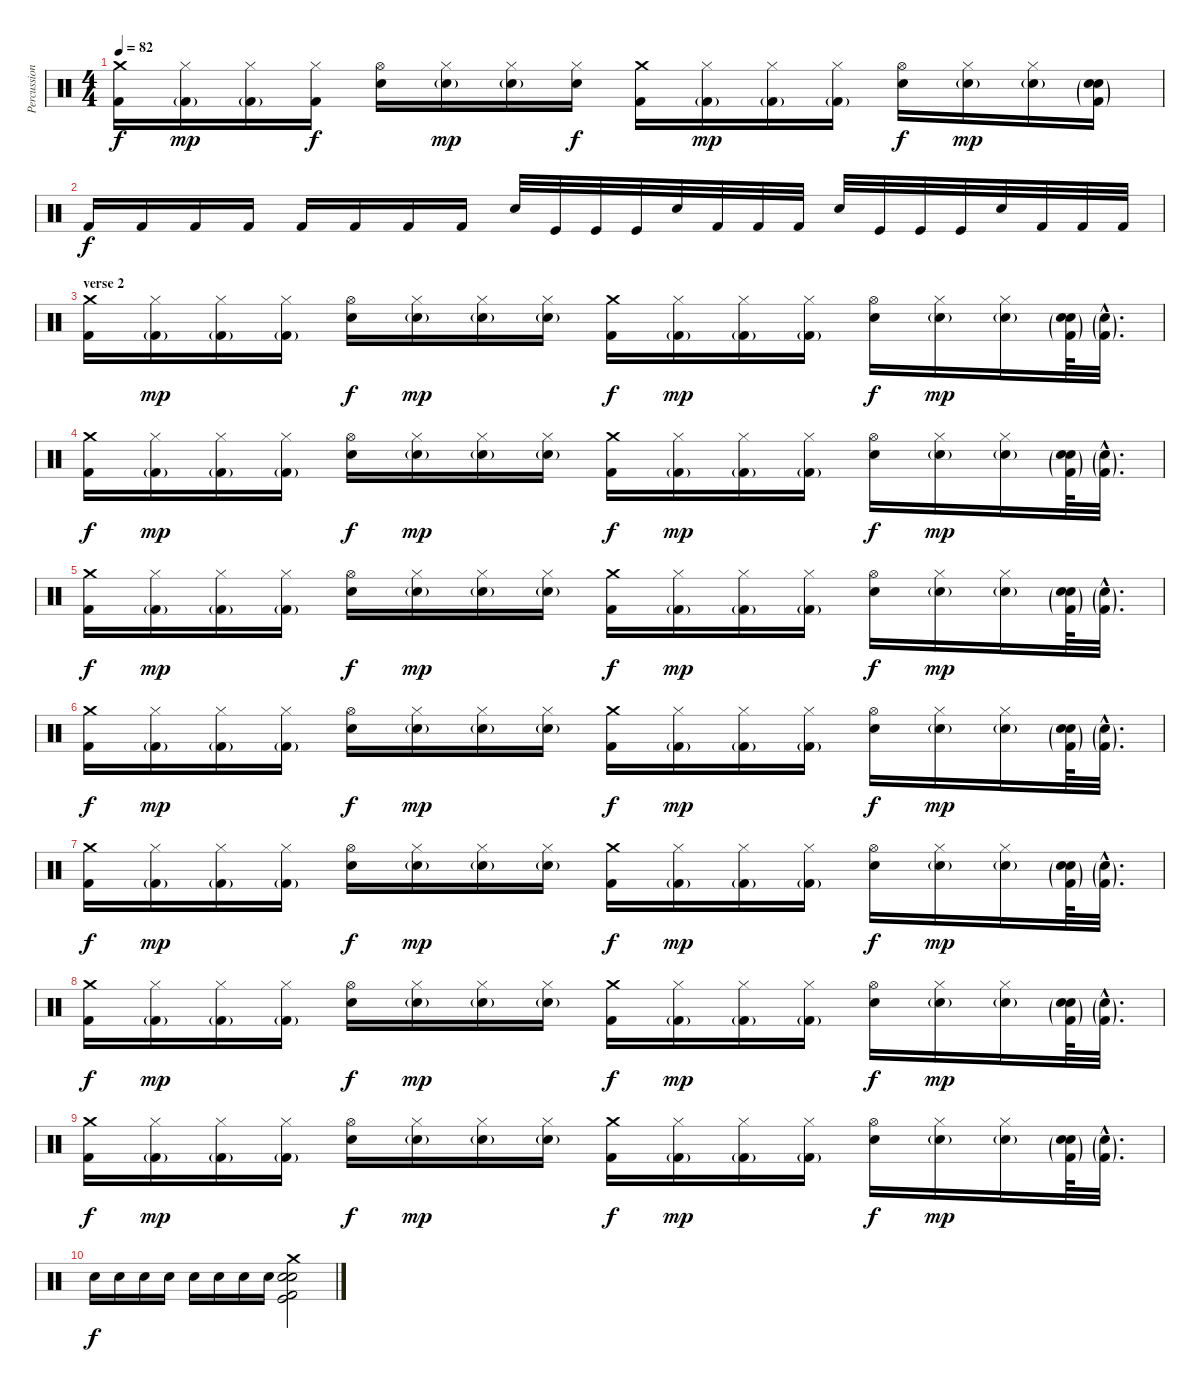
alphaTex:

\track ("Percussion" "Percussion") {instrument percussion}
\staff {score}
\articulation defaults
\ts (4 4)
\tempo 82
\clef neutral
\ks c
("Crash medium (hit)" "Kick (hit) 2").16{dy f} ("Kick (hit) 2"{g} "Hi-Hat (closed)").16{dy mp} ("Kick (hit) 2"{g} "Hi-Hat (closed)").16 ("Kick (hit) 2" "Hi-Hat (closed)").16{dy f} ("Hi-Hat (open)" "Snare (hit) 2").16 ("Snare (hit) 2"{g} "Hi-Hat (closed)").16{dy mp} ("Snare (hit) 2"{g} "Hi-Hat (closed)").16 ("Snare (hit) 2" "Hi-Hat (closed)").16{dy f} ("Crash medium (hit)" "Kick (hit) 2").16 ("Kick (hit) 2"{g} "Hi-Hat (closed)").16{dy mp} ("Kick (hit) 2"{g} "Hi-Hat (closed)").16 ("Kick (hit) 2"{g} "Hi-Hat (closed)").16 ("Hi-Hat (open)" "Snare (hit) 2").16{dy f} ("Snare (hit) 2"{g} "Hi-Hat (closed)").16{dy mp} ("Snare (hit) 2"{g} "Hi-Hat (closed)").16 ("Snare (hit) 2" "Kick (hit) 2"{g} "Electric Snare (hit)"{g}).16 |
"Kick (hit) 2".16{dy f} "Kick (hit) 2".16 "Kick (hit) 2".16 "Kick (hit) 2".16 "Kick (hit) 2".16 "Kick (hit) 2".16 "Kick (hit) 2".16 "Kick (hit) 2".16 "Snare (hit) 2".32 "Kick (hit)".32 "Kick (hit)".32 "Kick (hit)".32 "Snare (hit) 2".32 "Kick (hit) 2".32 "Kick (hit) 2".32 "Kick (hit) 2".32 "Snare (hit) 2".32 "Kick (hit)".32 "Kick (hit)".32 "Kick (hit)".32 "Electric Snare (hit)".32 "Kick (hit) 2".32 "Kick (hit) 2".32 "Kick (hit) 2".32 |
\section ("" "verse 2")
("Crash medium (hit)" "Kick (hit) 2").16 ("Kick (hit) 2"{g} "Hi-Hat (closed)").16{dy mp} ("Kick (hit) 2"{g} "Hi-Hat (closed)").16 ("Kick (hit) 2"{g} "Hi-Hat (closed)").16 ("Hi-Hat (open)" "Snare (hit) 2").16{dy f} ("Snare (hit) 2"{g} "Hi-Hat (closed)").16{dy mp} ("Snare (hit) 2"{g} "Hi-Hat (closed)").16 ("Snare (hit) 2"{g} "Hi-Hat (closed)").16 ("Crash medium (hit)" "Kick (hit) 2").16{dy f} ("Kick (hit) 2"{g} "Hi-Hat (closed)").16{dy mp} ("Kick (hit) 2"{g} "Hi-Hat (closed)").16 ("Kick (hit) 2"{g} "Hi-Hat (closed)").16 ("Hi-Hat (open)" "Snare (hit) 2").16{dy f} ("Snare (hit) 2"{g} "Hi-Hat (closed)").16{dy mp} ("Snare (hit) 2"{g} "Hi-Hat (closed)").16 ("Snare (hit) 2" "Kick (hit) 2"{g} "Electric Snare (hit)"{g}).64 ("Electric Snare (hit)"{g hac} "Kick (hit) 2"{g hac}).32{d} |
("Crash medium (hit)" "Kick (hit) 2").16{dy f} ("Kick (hit) 2"{g} "Hi-Hat (closed)").16{dy mp} ("Kick (hit) 2"{g} "Hi-Hat (closed)").16 ("Kick (hit) 2"{g} "Hi-Hat (closed)").16 ("Hi-Hat (open)" "Snare (hit) 2").16{dy f} ("Snare (hit) 2"{g} "Hi-Hat (closed)").16{dy mp} ("Snare (hit) 2"{g} "Hi-Hat (closed)").16 ("Snare (hit) 2"{g} "Hi-Hat (closed)").16 ("Crash medium (hit)" "Kick (hit) 2").16{dy f} ("Kick (hit) 2"{g} "Hi-Hat (closed)").16{dy mp} ("Kick (hit) 2"{g} "Hi-Hat (closed)").16 ("Kick (hit) 2"{g} "Hi-Hat (closed)").16 ("Hi-Hat (open)" "Snare (hit) 2").16{dy f} ("Snare (hit) 2"{g} "Hi-Hat (closed)").16{dy mp} ("Snare (hit) 2"{g} "Hi-Hat (closed)").16 ("Snare (hit) 2" "Kick (hit) 2"{g} "Electric Snare (hit)"{g}).64 ("Electric Snare (hit)"{g hac} "Kick (hit) 2"{g hac}).32{d} |
("Crash medium (hit)" "Kick (hit) 2").16{dy f} ("Kick (hit) 2"{g} "Hi-Hat (closed)").16{dy mp} ("Kick (hit) 2"{g} "Hi-Hat (closed)").16 ("Kick (hit) 2"{g} "Hi-Hat (closed)").16 ("Hi-Hat (open)" "Snare (hit) 2").16{dy f} ("Snare (hit) 2"{g} "Hi-Hat (closed)").16{dy mp} ("Snare (hit) 2"{g} "Hi-Hat (closed)").16 ("Snare (hit) 2"{g} "Hi-Hat (closed)").16 ("Crash medium (hit)" "Kick (hit) 2").16{dy f} ("Kick (hit) 2"{g} "Hi-Hat (closed)").16{dy mp} ("Kick (hit) 2"{g} "Hi-Hat (closed)").16 ("Kick (hit) 2"{g} "Hi-Hat (closed)").16 ("Hi-Hat (open)" "Snare (hit) 2").16{dy f} ("Snare (hit) 2"{g} "Hi-Hat (closed)").16{dy mp} ("Snare (hit) 2"{g} "Hi-Hat (closed)").16 ("Snare (hit) 2" "Kick (hit) 2"{g} "Electric Snare (hit)"{g}).64 ("Electric Snare (hit)"{g hac} "Kick (hit) 2"{g hac}).32{d} |
("Crash medium (hit)" "Kick (hit) 2").16{dy f} ("Kick (hit) 2"{g} "Hi-Hat (closed)").16{dy mp} ("Kick (hit) 2"{g} "Hi-Hat (closed)").16 ("Kick (hit) 2"{g} "Hi-Hat (closed)").16 ("Hi-Hat (open)" "Snare (hit) 2").16{dy f} ("Snare (hit) 2"{g} "Hi-Hat (closed)").16{dy mp} ("Snare (hit) 2"{g} "Hi-Hat (closed)").16 ("Snare (hit) 2"{g} "Hi-Hat (closed)").16 ("Crash medium (hit)" "Kick (hit) 2").16{dy f} ("Kick (hit) 2"{g} "Hi-Hat (closed)").16{dy mp} ("Kick (hit) 2"{g} "Hi-Hat (closed)").16 ("Kick (hit) 2"{g} "Hi-Hat (closed)").16 ("Hi-Hat (open)" "Snare (hit) 2").16{dy f} ("Snare (hit) 2"{g} "Hi-Hat (closed)").16{dy mp} ("Snare (hit) 2"{g} "Hi-Hat (closed)").16 ("Snare (hit) 2" "Kick (hit) 2"{g} "Electric Snare (hit)"{g}).64 ("Electric Snare (hit)"{g hac} "Kick (hit) 2"{g hac}).32{d} |
("Crash medium (hit)" "Kick (hit) 2").16{dy f} ("Kick (hit) 2"{g} "Hi-Hat (closed)").16{dy mp} ("Kick (hit) 2"{g} "Hi-Hat (closed)").16 ("Kick (hit) 2"{g} "Hi-Hat (closed)").16 ("Hi-Hat (open)" "Snare (hit) 2").16{dy f} ("Snare (hit) 2"{g} "Hi-Hat (closed)").16{dy mp} ("Snare (hit) 2"{g} "Hi-Hat (closed)").16 ("Snare (hit) 2"{g} "Hi-Hat (closed)").16 ("Crash medium (hit)" "Kick (hit) 2").16{dy f} ("Kick (hit) 2"{g} "Hi-Hat (closed)").16{dy mp} ("Kick (hit) 2"{g} "Hi-Hat (closed)").16 ("Kick (hit) 2"{g} "Hi-Hat (closed)").16 ("Hi-Hat (open)" "Snare (hit) 2").16{dy f} ("Snare (hit) 2"{g} "Hi-Hat (closed)").16{dy mp} ("Snare (hit) 2"{g} "Hi-Hat (closed)").16 ("Snare (hit) 2" "Kick (hit) 2"{g} "Electric Snare (hit)"{g}).64 ("Electric Snare (hit)"{g hac} "Kick (hit) 2"{g hac}).32{d} |
("Crash medium (hit)" "Kick (hit) 2").16{dy f} ("Kick (hit) 2"{g} "Hi-Hat (closed)").16{dy mp} ("Kick (hit) 2"{g} "Hi-Hat (closed)").16 ("Kick (hit) 2"{g} "Hi-Hat (closed)").16 ("Hi-Hat (open)" "Snare (hit) 2").16{dy f} ("Snare (hit) 2"{g} "Hi-Hat (closed)").16{dy mp} ("Snare (hit) 2"{g} "Hi-Hat (closed)").16 ("Snare (hit) 2"{g} "Hi-Hat (closed)").16 ("Crash medium (hit)" "Kick (hit) 2").16{dy f} ("Kick (hit) 2"{g} "Hi-Hat (closed)").16{dy mp} ("Kick (hit) 2"{g} "Hi-Hat (closed)").16 ("Kick (hit) 2"{g} "Hi-Hat (closed)").16 ("Hi-Hat (open)" "Snare (hit) 2").16{dy f} ("Snare (hit) 2"{g} "Hi-Hat (closed)").16{dy mp} ("Snare (hit) 2"{g} "Hi-Hat (closed)").16 ("Snare (hit) 2" "Kick (hit) 2"{g} "Electric Snare (hit)"{g}).64 ("Electric Snare (hit)"{g hac} "Kick (hit) 2"{g hac}).32{d} |
("Crash medium (hit)" "Kick (hit) 2").16{dy f} ("Kick (hit) 2"{g} "Hi-Hat (closed)").16{dy mp} ("Kick (hit) 2"{g} "Hi-Hat (closed)").16 ("Kick (hit) 2"{g} "Hi-Hat (closed)").16 ("Hi-Hat (open)" "Snare (hit) 2").16{dy f} ("Snare (hit) 2"{g} "Hi-Hat (closed)").16{dy mp} ("Snare (hit) 2"{g} "Hi-Hat (closed)").16 ("Snare (hit) 2"{g} "Hi-Hat (closed)").16 ("Crash medium (hit)" "Kick (hit) 2").16{dy f} ("Kick (hit) 2"{g} "Hi-Hat (closed)").16{dy mp} ("Kick (hit) 2"{g} "Hi-Hat (closed)").16 ("Kick (hit) 2"{g} "Hi-Hat (closed)").16 ("Hi-Hat (open)" "Snare (hit) 2").16{dy f} ("Snare (hit) 2"{g} "Hi-Hat (closed)").16{dy mp} ("Snare (hit) 2"{g} "Hi-Hat (closed)").16 ("Snare (hit) 2" "Kick (hit) 2"{g} "Electric Snare (hit)"{g}).64 ("Electric Snare (hit)"{g hac} "Kick (hit) 2"{g hac}).32{d} |
"Electric Snare (hit)".16{dy f} "Electric Snare (hit)".16 "Electric Snare (hit)".16 "Electric Snare (hit)".16 "Electric Snare (hit)".16 "Electric Snare (hit)".16 "Electric Snare (hit)".16 "Electric Snare (hit)".16 ("Crash medium (hit)" "Snare (hit) 2" "Kick (hit)" "Electric Snare (hit)" "Kick (hit) 2").2
